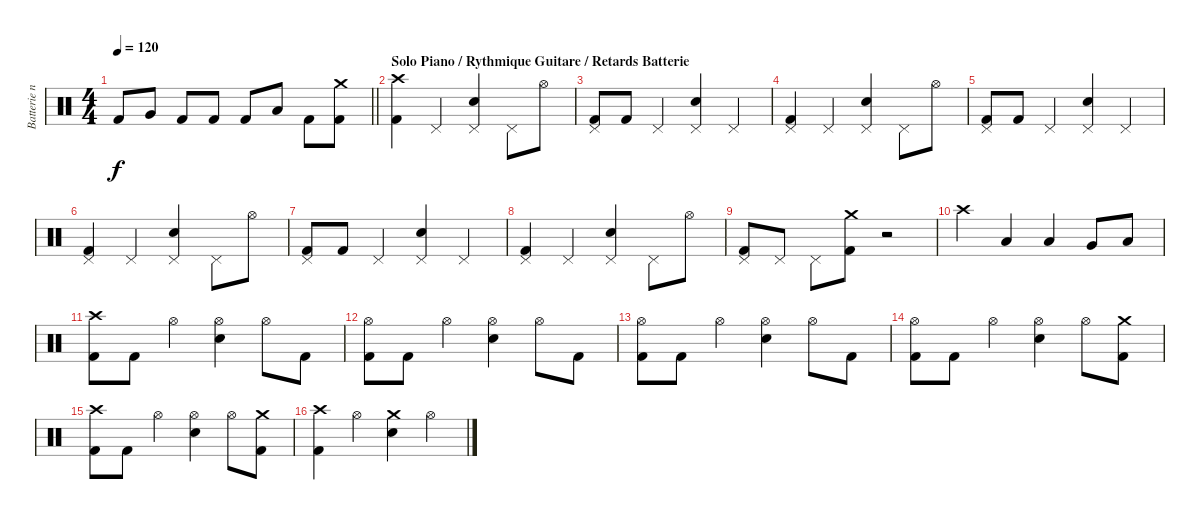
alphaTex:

\track ("Batterie n°3" "Batterie n") {instrument percussion}
\staff {score}
\articulation defaults
\ts (4 4)
\tempo 120
\clef neutral
\barLineRight lightlight
\ks c "Kick (hit) 2".8{dy f} "Very Low Tom (hit)".8 "Kick (hit) 2".8 "Kick (hit) 2".8 "Kick (hit) 2".8 "Low Tom (hit)".8 "Kick (hit) 2".8
("Crash medium (hit)" "Kick (hit) 2").8 |
\section ("" "Solo Piano / Rythmique Guitare / Retards Batterie")
("Crash high (hit)" "Kick (hit) 2").4 "Pedal Hi-Hat (hit)".4 ("Pedal Hi-Hat (hit)" "Snare (hit) 2").4 "Pedal Hi-Hat (hit)".8 "Hi-Hat (open)".8 |
("Pedal Hi-Hat (hit)" "Kick (hit) 2").8 "Kick (hit) 2".8 "Pedal Hi-Hat (hit)".4 ("Pedal Hi-Hat (hit)" "Snare (hit) 2").4 "Pedal Hi-Hat (hit)".4 |
("Pedal Hi-Hat (hit)" "Kick (hit) 2").4 "Pedal Hi-Hat (hit)".4 ("Pedal Hi-Hat (hit)" "Snare (hit) 2").4 "Pedal Hi-Hat (hit)".8 "Hi-Hat (open)".8 |
("Pedal Hi-Hat (hit)" "Kick (hit) 2").8 "Kick (hit) 2".8 "Pedal Hi-Hat (hit)".4 ("Pedal Hi-Hat (hit)" "Snare (hit) 2").4 "Pedal Hi-Hat (hit)".4 |
("Pedal Hi-Hat (hit)" "Kick (hit) 2").4 "Pedal Hi-Hat (hit)".4 ("Pedal Hi-Hat (hit)" "Snare (hit) 2").4 "Pedal Hi-Hat (hit)".8 "Hi-Hat (open)".8 |
("Pedal Hi-Hat (hit)" "Kick (hit) 2").8 "Kick (hit) 2".8 "Pedal Hi-Hat (hit)".4 ("Pedal Hi-Hat (hit)" "Snare (hit) 2").4 "Pedal Hi-Hat (hit)".4 |
("Pedal Hi-Hat (hit)" "Kick (hit) 2").4 "Pedal Hi-Hat (hit)".4 ("Pedal Hi-Hat (hit)" "Snare (hit) 2").4 "Pedal Hi-Hat (hit)".8 "Hi-Hat (open)".8 |
("Pedal Hi-Hat (hit)" "Kick (hit) 2").8 "Pedal Hi-Hat (hit)".8 "Pedal Hi-Hat (hit)".8 ("Crash medium (hit)" "Kick (hit) 2").8 r.2 |
"Crash high (hit)".4 "Low Tom (hit)".4 "Low Tom (hit)".4 "Very Low Tom (hit)".8 "Low Floor Tom (hit)".8 |
("Crash high (hit)" "Kick (hit) 2").8 "Kick (hit) 2".8 "Hi-Hat (open)".4 ("Hi-Hat (open)" "Snare (hit) 2").4 "Hi-Hat (open)".8 "Kick (hit) 2".8 |
("Hi-Hat (open)" "Kick (hit) 2").8 "Kick (hit) 2".8 "Hi-Hat (open)".4 ("Hi-Hat (open)" "Snare (hit) 2").4 "Hi-Hat (open)".8 "Kick (hit) 2".8 |
("Hi-Hat (open)" "Kick (hit) 2").8 "Kick (hit) 2".8 "Hi-Hat (open)".4 ("Hi-Hat (open)" "Snare (hit) 2").4 "Hi-Hat (open)".8 "Kick (hit) 2".8 |
("Hi-Hat (open)" "Kick (hit) 2").8 "Kick (hit) 2".8 "Hi-Hat (open)".4 ("Hi-Hat (open)" "Snare (hit) 2").4 "Hi-Hat (open)".8 ("Crash medium (hit)" "Kick (hit) 2").8 |
("Crash high (hit)" "Kick (hit) 2").8 "Kick (hit) 2".8 "Hi-Hat (open)".4 ("Hi-Hat (open)" "Snare (hit) 2").4 "Hi-Hat (open)".8 ("Crash medium (hit)" "Kick (hit) 2").8 |
("Crash high (hit)" "Kick (hit) 2").4 "Hi-Hat (open)".4 ("Crash medium (hit)" "Snare (hit) 2").4 "Hi-Hat (open)".4
